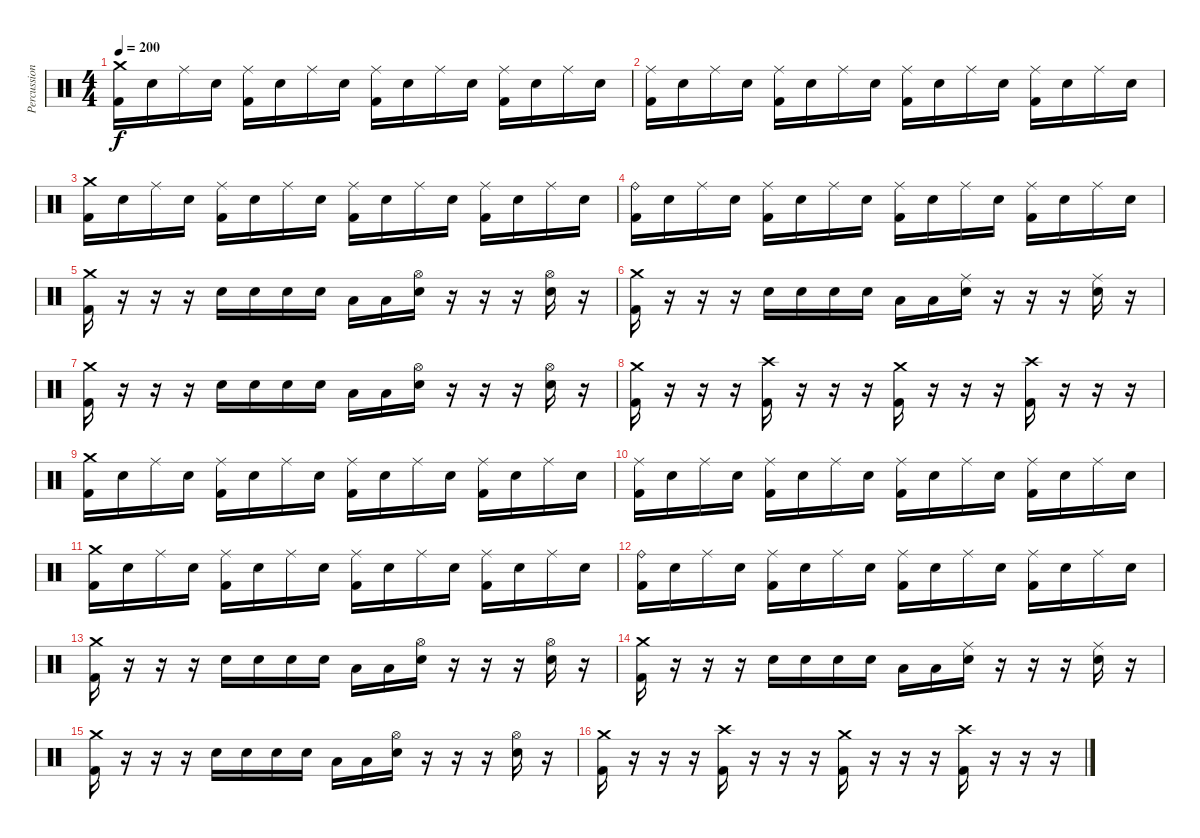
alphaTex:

\track ("Percussion" "Percussion") {instrument percussion}
\staff {score}
\articulation defaults
\ts (4 4)
\tempo 200
\clef neutral
\ks c
("Crash medium (hit)" "Kick (hit) 2").16{dy f} "Electric Snare (hit)".16 "Ride (middle)".16 "Electric Snare (hit)".16 ("Ride (middle)" "Kick (hit) 2").16 "Electric Snare (hit)".16 "Ride (middle)".16 "Electric Snare (hit)".16 ("Ride (middle)" "Kick (hit) 2").16 "Electric Snare (hit)".16 "Ride (middle)".16 "Electric Snare (hit)".16 ("Ride (middle)" "Kick (hit) 2").16 "Electric Snare (hit)".16 "Ride (middle)".16 "Electric Snare (hit)".16 |
("Ride (middle)" "Kick (hit) 2").16 "Electric Snare (hit)".16 "Ride (middle)".16 "Electric Snare (hit)".16 ("Ride (middle)" "Kick (hit) 2").16 "Electric Snare (hit)".16 "Ride (middle)".16 "Electric Snare (hit)".16 ("Ride (middle)" "Kick (hit) 2").16 "Electric Snare (hit)".16 "Ride (middle)".16 "Electric Snare (hit)".16 ("Ride (middle)" "Kick (hit) 2").16 "Electric Snare (hit)".16 "Ride (middle)".16 "Electric Snare (hit)".16 |
("Crash medium (hit)" "Kick (hit) 2").16 "Electric Snare (hit)".16 "Ride (middle)".16 "Electric Snare (hit)".16 ("Ride (middle)" "Kick (hit) 2").16 "Electric Snare (hit)".16 "Ride (middle)".16 "Electric Snare (hit)".16 ("Ride (middle)" "Kick (hit) 2").16 "Electric Snare (hit)".16 "Ride (middle)".16 "Electric Snare (hit)".16 ("Ride (middle)" "Kick (hit) 2").16 "Electric Snare (hit)".16 "Ride (middle)".16 "Electric Snare (hit)".16 |
("Ride (bell)" "Kick (hit) 2").16 "Electric Snare (hit)".16 "Ride (middle)".16 "Electric Snare (hit)".16 ("Ride (middle)" "Kick (hit) 2").16 "Electric Snare (hit)".16 "Ride (middle)".16 "Electric Snare (hit)".16 ("Ride (middle)" "Kick (hit) 2").16 "Electric Snare (hit)".16 "Ride (middle)".16 "Electric Snare (hit)".16 ("Ride (middle)" "Kick (hit) 2").16 "Electric Snare (hit)".16 "Ride (middle)".16 "Electric Snare (hit)".16 |
("Crash medium (hit)" "Kick (hit) 2").16 r.16 r.16 r.16 "Electric Snare (hit)".16 "Electric Snare (hit)".16 "Electric Snare (hit)".16 "Electric Snare (hit)".16 "Low Floor Tom (hit)".16 "Low Floor Tom (hit)".16 ("Hi-Hat (open)" "Electric Snare (hit)").16 r.16 r.16 r.16 ("Hi-Hat (open)" "Electric Snare (hit)").16 r.16 |
("Crash medium (hit)" "Kick (hit) 2").16 r.16 r.16 r.16 "Electric Snare (hit)".16 "Electric Snare (hit)".16 "Electric Snare (hit)".16 "Electric Snare (hit)".16 "Low Floor Tom (hit)".16 "Low Floor Tom (hit)".16 ("Ride (middle)" "Electric Snare (hit)").16 r.16 r.16 r.16 ("Ride (middle)" "Electric Snare (hit)").16 r.16 |
("Crash medium (hit)" "Kick (hit) 2").16 r.16 r.16 r.16 "Electric Snare (hit)".16 "Electric Snare (hit)".16 "Electric Snare (hit)".16 "Electric Snare (hit)".16 "Low Floor Tom (hit)".16 "Low Floor Tom (hit)".16 ("Hi-Hat (open)" "Electric Snare (hit)").16 r.16 r.16 r.16 ("Hi-Hat (open)" "Electric Snare (hit)").16 r.16 |
("Crash medium (hit)" "Kick (hit) 2").16 r.16 r.16 r.16 ("Crash high (hit)" "Kick (hit) 2").16 r.16 r.16 r.16 ("Crash medium (hit)" "Kick (hit) 2").16 r.16 r.16 r.16 ("Crash high (hit)" "Kick (hit) 2").16 r.16 r.16 r.16 |
("Crash medium (hit)" "Kick (hit) 2").16 "Electric Snare (hit)".16 "Ride (middle)".16 "Electric Snare (hit)".16 ("Ride (middle)" "Kick (hit) 2").16 "Electric Snare (hit)".16 "Ride (middle)".16 "Electric Snare (hit)".16 ("Ride (middle)" "Kick (hit) 2").16 "Electric Snare (hit)".16 "Ride (middle)".16 "Electric Snare (hit)".16 ("Ride (middle)" "Kick (hit) 2").16 "Electric Snare (hit)".16 "Ride (middle)".16 "Electric Snare (hit)".16 |
("Ride (middle)" "Kick (hit) 2").16 "Electric Snare (hit)".16 "Ride (middle)".16 "Electric Snare (hit)".16 ("Ride (middle)" "Kick (hit) 2").16 "Electric Snare (hit)".16 "Ride (middle)".16 "Electric Snare (hit)".16 ("Ride (middle)" "Kick (hit) 2").16 "Electric Snare (hit)".16 "Ride (middle)".16 "Electric Snare (hit)".16 ("Ride (middle)" "Kick (hit) 2").16 "Electric Snare (hit)".16 "Ride (middle)".16 "Electric Snare (hit)".16 |
("Crash medium (hit)" "Kick (hit) 2").16 "Electric Snare (hit)".16 "Ride (middle)".16 "Electric Snare (hit)".16 ("Ride (middle)" "Kick (hit) 2").16 "Electric Snare (hit)".16 "Ride (middle)".16 "Electric Snare (hit)".16 ("Ride (middle)" "Kick (hit) 2").16 "Electric Snare (hit)".16 "Ride (middle)".16 "Electric Snare (hit)".16 ("Ride (middle)" "Kick (hit) 2").16 "Electric Snare (hit)".16 "Ride (middle)".16 "Electric Snare (hit)".16 |
("Ride (bell)" "Kick (hit) 2").16 "Electric Snare (hit)".16 "Ride (middle)".16 "Electric Snare (hit)".16 ("Ride (middle)" "Kick (hit) 2").16 "Electric Snare (hit)".16 "Ride (middle)".16 "Electric Snare (hit)".16 ("Ride (middle)" "Kick (hit) 2").16 "Electric Snare (hit)".16 "Ride (middle)".16 "Electric Snare (hit)".16 ("Ride (middle)" "Kick (hit) 2").16 "Electric Snare (hit)".16 "Ride (middle)".16 "Electric Snare (hit)".16 |
("Crash medium (hit)" "Kick (hit) 2").16 r.16 r.16 r.16 "Electric Snare (hit)".16 "Electric Snare (hit)".16 "Electric Snare (hit)".16 "Electric Snare (hit)".16 "Low Floor Tom (hit)".16 "Low Floor Tom (hit)".16 ("Hi-Hat (open)" "Electric Snare (hit)").16 r.16 r.16 r.16 ("Hi-Hat (open)" "Electric Snare (hit)").16 r.16 |
("Crash medium (hit)" "Kick (hit) 2").16 r.16 r.16 r.16 "Electric Snare (hit)".16 "Electric Snare (hit)".16 "Electric Snare (hit)".16 "Electric Snare (hit)".16 "Low Floor Tom (hit)".16 "Low Floor Tom (hit)".16 ("Ride (middle)" "Electric Snare (hit)").16 r.16 r.16 r.16 ("Ride (middle)" "Electric Snare (hit)").16 r.16 |
("Crash medium (hit)" "Kick (hit) 2").16 r.16 r.16 r.16 "Electric Snare (hit)".16 "Electric Snare (hit)".16 "Electric Snare (hit)".16 "Electric Snare (hit)".16 "Low Floor Tom (hit)".16 "Low Floor Tom (hit)".16 ("Hi-Hat (open)" "Electric Snare (hit)").16 r.16 r.16 r.16 ("Hi-Hat (open)" "Electric Snare (hit)").16 r.16 |
("Crash medium (hit)" "Kick (hit) 2").16 r.16 r.16 r.16 ("Crash high (hit)" "Kick (hit) 2").16 r.16 r.16 r.16 ("Crash medium (hit)" "Kick (hit) 2").16 r.16 r.16 r.16 ("Crash high (hit)" "Kick (hit) 2").16 r.16 r.16 r.16
